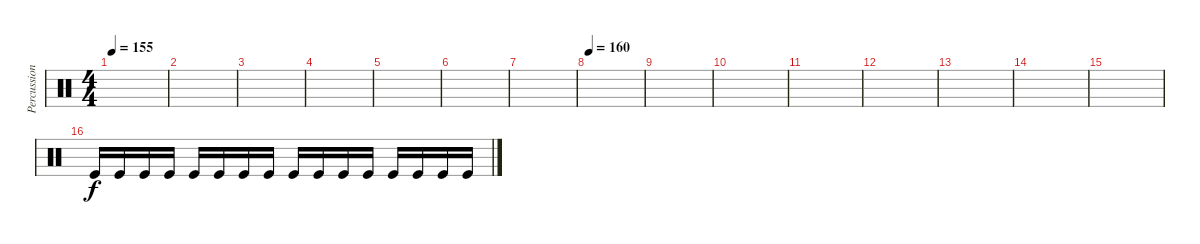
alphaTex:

\track ("Percussion2" "Percussion") {instrument percussion}
\staff {score}
\articulation defaults
\ts (4 4)
\tempo 155
\clef neutral
\ks c
|
|
|
|
|
|
|
\tempo 160
|
|
|
|
|
|
|
|
"Kick (hit)".16 "Kick (hit)".16 "Kick (hit)".16 "Kick (hit)".16 "Kick (hit)".16 "Kick (hit)".16 "Kick (hit)".16 "Kick (hit)".16 "Kick (hit)".16 "Kick (hit)".16 "Kick (hit)".16 "Kick (hit)".16 "Kick (hit)".16 "Kick (hit)".16 "Kick (hit)".16 "Kick (hit)".16
